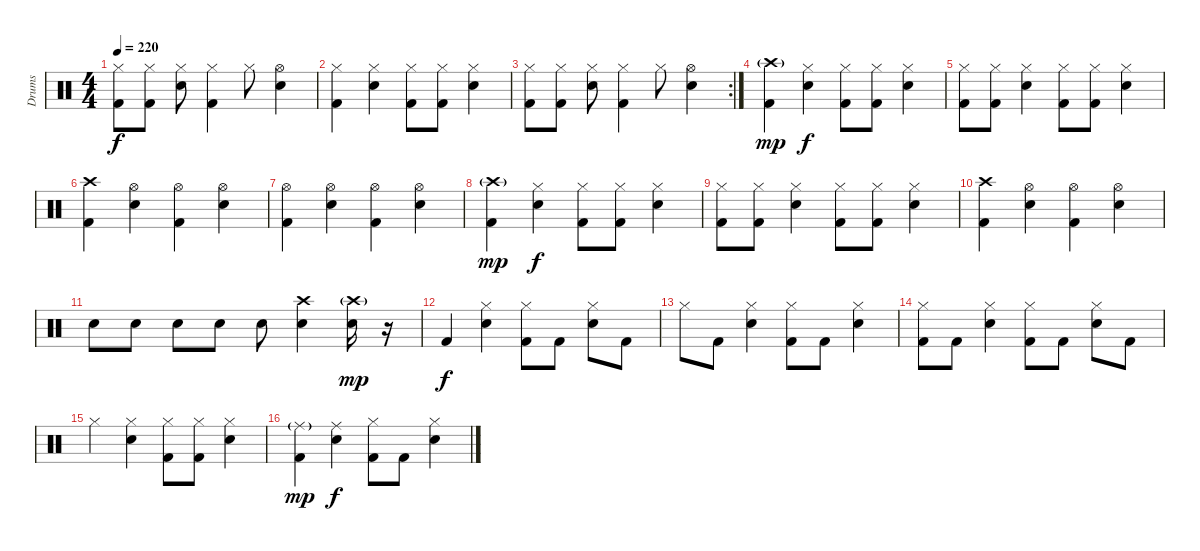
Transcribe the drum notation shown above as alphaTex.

\track ("Drums" "Drums") {instrument percussion}
\staff {score}
\articulation defaults
\ts (4 4)
\tempo 220
\clef neutral
\ks c
("Hi-Hat (closed)" "Kick (hit) 2").8{dy f} ("Hi-Hat (closed)" "Kick (hit) 2").8 ("Hi-Hat (closed)" "Snare (hit) 2").8 ("Hi-Hat (closed)" "Kick (hit) 2").4 "Hi-Hat (closed)".8 ("Hi-Hat (open)" "Snare (hit) 2").4 |
("Hi-Hat (closed)" "Kick (hit) 2").4 ("Hi-Hat (closed)" "Snare (hit) 2").4 ("Hi-Hat (closed)" "Kick (hit) 2").8 ("Hi-Hat (closed)" "Kick (hit) 2").8 ("Hi-Hat (closed)" "Snare (hit) 2").4 |
\rc 2
("Hi-Hat (closed)" "Kick (hit) 2").8 ("Hi-Hat (closed)" "Kick (hit) 2").8 ("Hi-Hat (closed)" "Snare (hit) 2").8 ("Hi-Hat (closed)" "Kick (hit) 2").4 "Hi-Hat (closed)".8 ("Hi-Hat (open)" "Snare (hit) 2").4 |
("Crash high (hit)"{g} "Kick (hit) 2").4{dy mp} ("Hi-Hat (closed)" "Snare (hit) 2").4{dy f} ("Hi-Hat (closed)" "Kick (hit) 2").8 ("Hi-Hat (closed)" "Kick (hit) 2").8 ("Hi-Hat (closed)" "Snare (hit) 2").4 |
("Hi-Hat (closed)" "Kick (hit) 2").8 ("Hi-Hat (closed)" "Kick (hit) 2").8 ("Hi-Hat (closed)" "Snare (hit) 2").4 ("Hi-Hat (closed)" "Kick (hit) 2").8 ("Hi-Hat (closed)" "Kick (hit) 2").8 ("Hi-Hat (closed)" "Snare (hit) 2").4 |
("Crash high (hit)" "Kick (hit) 2").4 ("Hi-Hat (open)" "Snare (hit) 2").4 ("Hi-Hat (open)" "Kick (hit) 2").4 ("Hi-Hat (open)" "Snare (hit) 2").4 |
("Hi-Hat (open)" "Kick (hit) 2").4 ("Hi-Hat (open)" "Snare (hit) 2").4 ("Hi-Hat (open)" "Kick (hit) 2").4 ("Hi-Hat (open)" "Snare (hit) 2").4 |
("Crash high (hit)"{g} "Kick (hit) 2").4{dy mp} ("Hi-Hat (closed)" "Snare (hit) 2").4{dy f} ("Hi-Hat (closed)" "Kick (hit) 2").8 ("Hi-Hat (closed)" "Kick (hit) 2").8 ("Hi-Hat (closed)" "Snare (hit) 2").4 |
("Hi-Hat (closed)" "Kick (hit) 2").8 ("Hi-Hat (closed)" "Kick (hit) 2").8 ("Hi-Hat (closed)" "Snare (hit) 2").4 ("Hi-Hat (closed)" "Kick (hit) 2").8 ("Hi-Hat (closed)" "Kick (hit) 2").8 ("Hi-Hat (closed)" "Snare (hit) 2").4 |
("Crash high (hit)" "Kick (hit) 2").4 ("Hi-Hat (open)" "Snare (hit) 2").4 ("Hi-Hat (open)" "Kick (hit) 2").4 ("Hi-Hat (open)" "Snare (hit) 2").4 |
"Snare (hit) 2".8 "Snare (hit) 2".8 "Snare (hit) 2".8 "Snare (hit) 2".8 "Snare (hit) 2".8 ("Crash high (hit)" "Snare (hit) 2").4 ("Crash high (hit)"{g} "Snare (hit) 2").16{dy mp} r.16 |
"Kick (hit) 2".4{dy f} ("Hi-Hat (closed)" "Snare (hit) 2").4 ("Hi-Hat (closed)" "Kick (hit) 2").8 "Kick (hit) 2".8 ("Hi-Hat (closed)" "Snare (hit) 2").8 "Kick (hit) 2".8 |
"Hi-Hat (closed)".8 "Kick (hit) 2".8 ("Hi-Hat (closed)" "Snare (hit) 2").4 ("Hi-Hat (closed)" "Kick (hit) 2").8 "Kick (hit) 2".8 ("Hi-Hat (closed)" "Snare (hit) 2").4 |
("Hi-Hat (closed)" "Kick (hit) 2").8 "Kick (hit) 2".8 ("Hi-Hat (closed)" "Snare (hit) 2").4 ("Hi-Hat (closed)" "Kick (hit) 2").8 "Kick (hit) 2".8 ("Hi-Hat (closed)" "Snare (hit) 2").8 "Kick (hit) 2".8 |
"Hi-Hat (closed)".4 ("Hi-Hat (closed)" "Snare (hit) 2").4 ("Hi-Hat (closed)" "Kick (hit) 2").8 ("Hi-Hat (closed)" "Kick (hit) 2").8 ("Hi-Hat (closed)" "Snare (hit) 2").4 |
("Ride (middle)"{g} "Kick (hit) 2").4{dy mp} ("Ride (middle)" "Snare (hit) 2").4{dy f} ("Hi-Hat (closed)" "Kick (hit) 2").8 "Kick (hit) 2".8 ("Hi-Hat (closed)" "Snare (hit) 2").4
